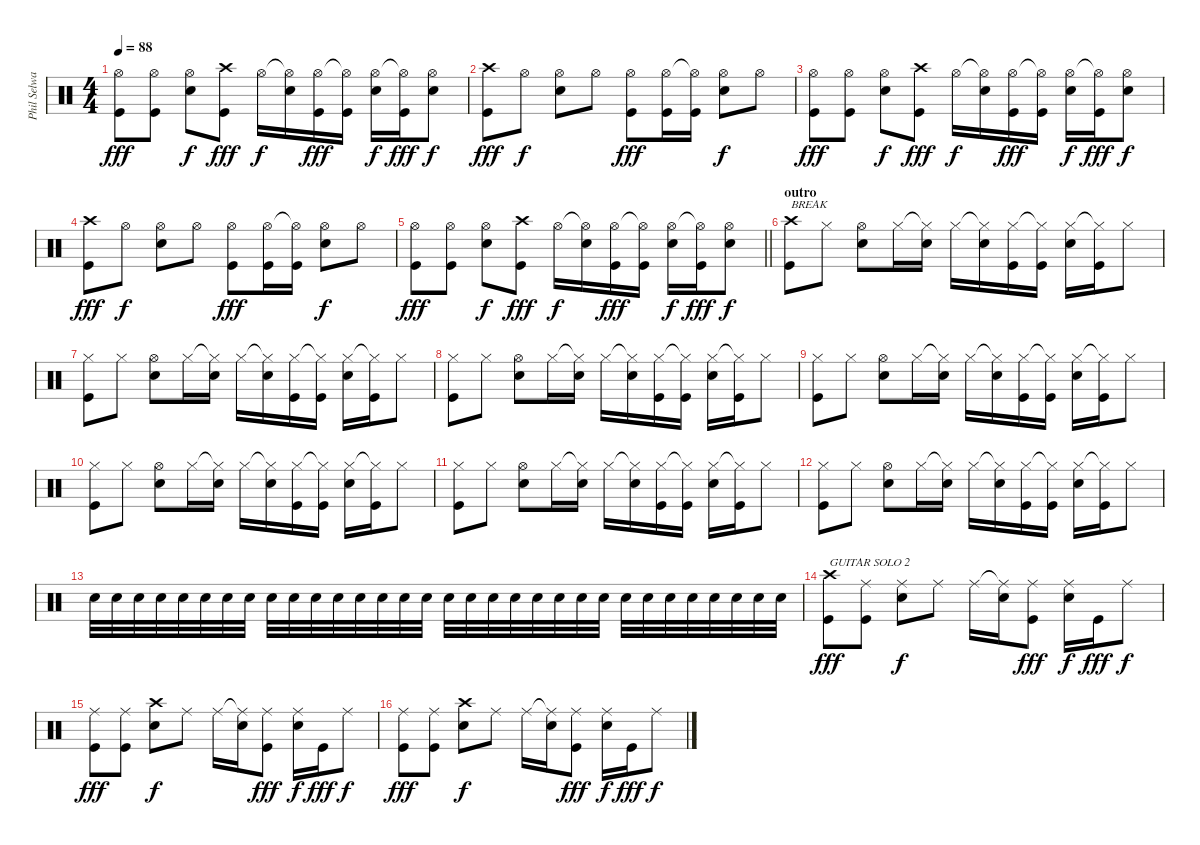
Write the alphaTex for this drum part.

\track ("Phil Selway" "Phil Selwa") {instrument percussion}
\staff {score}
\articulation defaults
\ts (4 4)
\tempo 88
\clef neutral
\ks c
("Hi-Hat (open)" "Kick (hit)").8{dy fff} ("Hi-Hat (open)" "Kick (hit)").8 ("Hi-Hat (open)" "Snare (hit) 2").8{dy f} ("Crash high (hit)" "Kick (hit)").8{dy fff} "Hi-Hat (open)".16{dy f} ("Hi-Hat (open)"{t} "Snare (hit) 2").16 ("Hi-Hat (open)" "Kick (hit)").16{dy fff} ("Hi-Hat (open)"{t} "Kick (hit)").16 ("Hi-Hat (open)" "Snare (hit) 2").16{dy f} ("Hi-Hat (open)"{t} "Kick (hit)").16{dy fff} ("Hi-Hat (open)" "Snare (hit) 2").8{dy f} |
("Crash high (hit)" "Kick (hit)").8{dy fff} "Hi-Hat (open)".8{dy f} ("Hi-Hat (open)" "Snare (hit) 2").8 "Hi-Hat (open)".8 ("Hi-Hat (open)" "Kick (hit)").8{dy fff} ("Hi-Hat (open)" "Kick (hit)").16 ("Hi-Hat (open)"{t} "Kick (hit)").16 ("Hi-Hat (open)" "Snare (hit) 2").8{dy f} "Hi-Hat (open)".8 |
("Hi-Hat (open)" "Kick (hit)").8{dy fff} ("Hi-Hat (open)" "Kick (hit)").8 ("Hi-Hat (open)" "Snare (hit) 2").8{dy f} ("Crash high (hit)" "Kick (hit)").8{dy fff} "Hi-Hat (open)".16{dy f} ("Hi-Hat (open)"{t} "Snare (hit) 2").16 ("Hi-Hat (open)" "Kick (hit)").16{dy fff} ("Hi-Hat (open)"{t} "Kick (hit)").16 ("Hi-Hat (open)" "Snare (hit) 2").16{dy f} ("Hi-Hat (open)"{t} "Kick (hit)").16{dy fff} ("Hi-Hat (open)" "Snare (hit) 2").8{dy f} |
("Crash high (hit)" "Kick (hit)").8{dy fff} "Hi-Hat (open)".8{dy f} ("Hi-Hat (open)" "Snare (hit) 2").8 "Hi-Hat (open)".8 ("Hi-Hat (open)" "Kick (hit)").8{dy fff} ("Hi-Hat (open)" "Kick (hit)").16 ("Hi-Hat (open)"{t} "Kick (hit)").16 ("Hi-Hat (open)" "Snare (hit) 2").8{dy f} "Hi-Hat (open)".8 |
\barLineRight lightlight
("Hi-Hat (open)" "Kick (hit)").8{dy fff} ("Hi-Hat (open)" "Kick (hit)").8 ("Hi-Hat (open)" "Snare (hit) 2").8{dy f} ("Crash high (hit)" "Kick (hit)").8{dy fff} "Hi-Hat (open)".16{dy f} ("Hi-Hat (open)"{t} "Snare (hit) 2").16 ("Hi-Hat (open)" "Kick (hit)").16{dy fff} ("Hi-Hat (open)"{t} "Kick (hit)").16 ("Hi-Hat (open)" "Snare (hit) 2").16{dy f} ("Hi-Hat (open)"{t} "Kick (hit)").16{dy fff} ("Hi-Hat (open)" "Snare (hit) 2").8{dy f} |
\section ("" "outro")
("Crash high (hit)" "Kick (hit)").8{txt "BREAK"} "Hi-Hat (closed)".8 ("Hi-Hat (open)" "Snare (hit) 2").8 "Hi-Hat (closed)".16 ("Hi-Hat (closed)"{t} "Snare (hit) 2").16 "Hi-Hat (closed)".16 ("Hi-Hat (closed)"{t} "Snare (hit) 2").16 ("Hi-Hat (closed)" "Kick (hit)").16 ("Hi-Hat (closed)"{t} "Kick (hit)").16 ("Hi-Hat (closed)" "Snare (hit) 2").16 ("Hi-Hat (closed)"{t} "Kick (hit)").16 "Hi-Hat (closed)".8 |
("Hi-Hat (closed)" "Kick (hit)").8 "Hi-Hat (closed)".8 ("Hi-Hat (open)" "Snare (hit) 2").8 "Hi-Hat (closed)".16 ("Hi-Hat (closed)"{t} "Snare (hit) 2").16 "Hi-Hat (closed)".16 ("Hi-Hat (closed)"{t} "Snare (hit) 2").16 ("Hi-Hat (closed)" "Kick (hit)").16 ("Hi-Hat (closed)"{t} "Kick (hit)").16 ("Hi-Hat (closed)" "Snare (hit) 2").16 ("Hi-Hat (closed)"{t} "Kick (hit)").16 "Hi-Hat (closed)".8 |
("Hi-Hat (closed)" "Kick (hit)").8 "Hi-Hat (closed)".8 ("Hi-Hat (open)" "Snare (hit) 2").8 "Hi-Hat (closed)".16 ("Hi-Hat (closed)"{t} "Snare (hit) 2").16 "Hi-Hat (closed)".16 ("Hi-Hat (closed)"{t} "Snare (hit) 2").16 ("Hi-Hat (closed)" "Kick (hit)").16 ("Hi-Hat (closed)"{t} "Kick (hit)").16 ("Hi-Hat (closed)" "Snare (hit) 2").16 ("Hi-Hat (closed)"{t} "Kick (hit)").16 "Hi-Hat (closed)".8 |
("Hi-Hat (closed)" "Kick (hit)").8 "Hi-Hat (closed)".8 ("Hi-Hat (open)" "Snare (hit) 2").8 "Hi-Hat (closed)".16 ("Hi-Hat (closed)"{t} "Snare (hit) 2").16 "Hi-Hat (closed)".16 ("Hi-Hat (closed)"{t} "Snare (hit) 2").16 ("Hi-Hat (closed)" "Kick (hit)").16 ("Hi-Hat (closed)"{t} "Kick (hit)").16 ("Hi-Hat (closed)" "Snare (hit) 2").16 ("Hi-Hat (closed)"{t} "Kick (hit)").16 "Hi-Hat (closed)".8 |
("Hi-Hat (closed)" "Kick (hit)").8 "Hi-Hat (closed)".8 ("Hi-Hat (open)" "Snare (hit) 2").8 "Hi-Hat (closed)".16 ("Hi-Hat (closed)"{t} "Snare (hit) 2").16 "Hi-Hat (closed)".16 ("Hi-Hat (closed)"{t} "Snare (hit) 2").16 ("Hi-Hat (closed)" "Kick (hit)").16 ("Hi-Hat (closed)"{t} "Kick (hit)").16 ("Hi-Hat (closed)" "Snare (hit) 2").16 ("Hi-Hat (closed)"{t} "Kick (hit)").16 "Hi-Hat (closed)".8 |
("Hi-Hat (closed)" "Kick (hit)").8 "Hi-Hat (closed)".8 ("Hi-Hat (open)" "Snare (hit) 2").8 "Hi-Hat (closed)".16 ("Hi-Hat (closed)"{t} "Snare (hit) 2").16 "Hi-Hat (closed)".16 ("Hi-Hat (closed)"{t} "Snare (hit) 2").16 ("Hi-Hat (closed)" "Kick (hit)").16 ("Hi-Hat (closed)"{t} "Kick (hit)").16 ("Hi-Hat (closed)" "Snare (hit) 2").16 ("Hi-Hat (closed)"{t} "Kick (hit)").16 "Hi-Hat (closed)".8 |
("Hi-Hat (closed)" "Kick (hit)").8 "Hi-Hat (closed)".8 ("Hi-Hat (open)" "Snare (hit) 2").8 "Hi-Hat (closed)".16 ("Hi-Hat (closed)"{t} "Snare (hit) 2").16 "Hi-Hat (closed)".16 ("Hi-Hat (closed)"{t} "Snare (hit) 2").16 ("Hi-Hat (closed)" "Kick (hit)").16 ("Hi-Hat (closed)"{t} "Kick (hit)").16 ("Hi-Hat (closed)" "Snare (hit) 2").16 ("Hi-Hat (closed)"{t} "Kick (hit)").16 "Hi-Hat (closed)".8 |
"Snare (hit) 2".32{volume 14} "Snare (hit) 2".32 "Snare (hit) 2".32 "Snare (hit) 2".32 "Snare (hit) 2".32 "Snare (hit) 2".32 "Snare (hit) 2".32 "Snare (hit) 2".32 "Snare (hit) 2".32 "Snare (hit) 2".32 "Snare (hit) 2".32 "Snare (hit) 2".32 "Snare (hit) 2".32 "Snare (hit) 2".32 "Snare (hit) 2".32 "Snare (hit) 2".32 "Snare (hit) 2".32 "Snare (hit) 2".32 "Snare (hit) 2".32 "Snare (hit) 2".32 "Snare (hit) 2".32 "Snare (hit) 2".32 "Snare (hit) 2".32 "Snare (hit) 2".32 "Snare (hit) 2".32 "Snare (hit) 2".32 "Snare (hit) 2".32 "Snare (hit) 2".32 "Snare (hit) 2".32 "Snare (hit) 2".32 "Snare (hit) 2".32 "Snare (hit) 2".32 |
("Crash high (hit)" "Kick (hit)").8{txt "GUITAR SOLO 2" dy fff volume 16} ("Ride (middle)" "Kick (hit)").8 ("Ride (middle)" "Snare (hit) 2").8{dy f} "Ride (middle)".8 "Ride (middle)".16 ("Ride (middle)"{t} "Snare (hit) 2").16 ("Ride (middle)" "Kick (hit)").8{dy fff} ("Ride (middle)" "Snare (hit) 2").16{dy f} "Kick (hit)".16{dy fff} "Ride (middle)".8{dy f} |
("Ride (middle)" "Kick (hit)").8{dy fff} ("Ride (middle)" "Kick (hit)").8 ("Crash high (hit)" "Snare (hit) 2").8{dy f} "Ride (middle)".8 "Ride (middle)".16 ("Ride (middle)"{t} "Snare (hit) 2").16 ("Ride (middle)" "Kick (hit)").8{dy fff} ("Ride (middle)" "Snare (hit) 2").16{dy f} "Kick (hit)".16{dy fff} "Ride (middle)".8{dy f} |
("Ride (middle)" "Kick (hit)").8{dy fff} ("Ride (middle)" "Kick (hit)").8 ("Crash high (hit)" "Snare (hit) 2").8{dy f} "Ride (middle)".8 "Ride (middle)".16 ("Ride (middle)"{t} "Snare (hit) 2").16 ("Ride (middle)" "Kick (hit)").8{dy fff} ("Ride (middle)" "Snare (hit) 2").16{dy f} "Kick (hit)".16{dy fff} "Ride (middle)".8{dy f}
